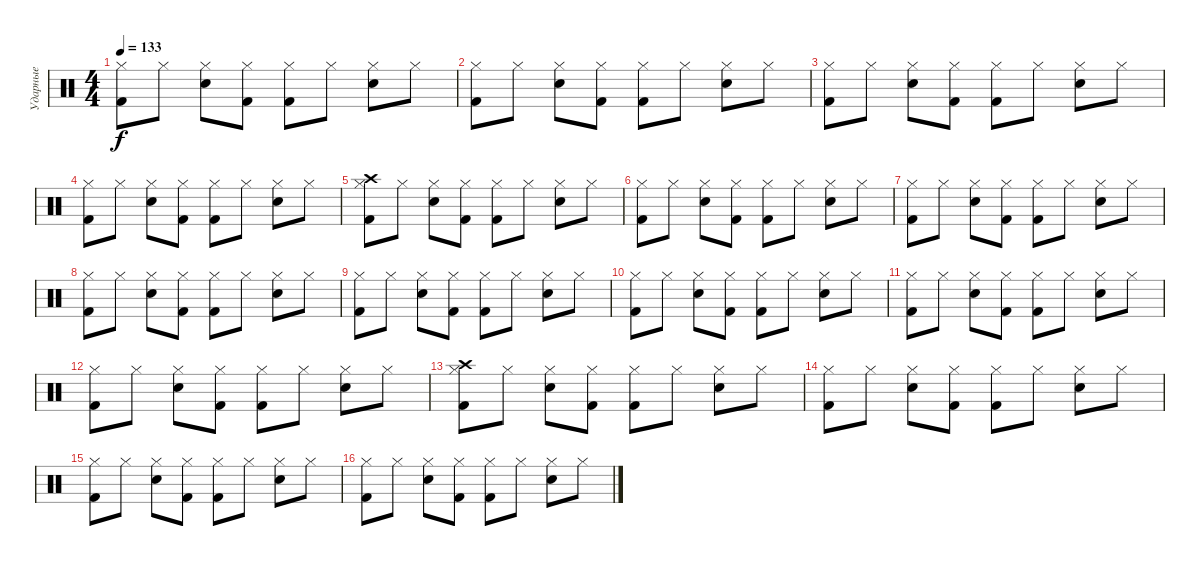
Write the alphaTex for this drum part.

\track ("Ударные" "Ударные") {instrument percussion}
\staff {score}
\articulation defaults
\ts (4 4)
\tempo 133
\clef neutral
\ks c
("Kick (hit) 2" "Hi-Hat (closed)").8{dy f} "Hi-Hat (closed)".8 ("Electric Snare (hit)" "Hi-Hat (closed)").8 ("Kick (hit) 2" "Hi-Hat (closed)").8 ("Kick (hit) 2" "Hi-Hat (closed)").8 "Hi-Hat (closed)".8 ("Electric Snare (hit)" "Hi-Hat (closed)").8 "Hi-Hat (closed)".8 |
("Kick (hit) 2" "Hi-Hat (closed)").8 "Hi-Hat (closed)".8 ("Electric Snare (hit)" "Hi-Hat (closed)").8 ("Kick (hit) 2" "Hi-Hat (closed)").8 ("Kick (hit) 2" "Hi-Hat (closed)").8 "Hi-Hat (closed)".8 ("Electric Snare (hit)" "Hi-Hat (closed)").8 "Hi-Hat (closed)".8 |
("Kick (hit) 2" "Hi-Hat (closed)").8 "Hi-Hat (closed)".8 ("Electric Snare (hit)" "Hi-Hat (closed)").8 ("Kick (hit) 2" "Hi-Hat (closed)").8 ("Kick (hit) 2" "Hi-Hat (closed)").8 "Hi-Hat (closed)".8 ("Electric Snare (hit)" "Hi-Hat (closed)").8 "Hi-Hat (closed)".8 |
("Kick (hit) 2" "Hi-Hat (closed)").8 "Hi-Hat (closed)".8 ("Electric Snare (hit)" "Hi-Hat (closed)").8 ("Kick (hit) 2" "Hi-Hat (closed)").8 ("Kick (hit) 2" "Hi-Hat (closed)").8 "Hi-Hat (closed)".8 ("Electric Snare (hit)" "Hi-Hat (closed)").8 "Hi-Hat (closed)".8 |
("Kick (hit) 2" "Crash high (hit)" "Hi-Hat (closed)").8 "Hi-Hat (closed)".8 ("Electric Snare (hit)" "Hi-Hat (closed)").8 ("Kick (hit) 2" "Hi-Hat (closed)").8 ("Kick (hit) 2" "Hi-Hat (closed)").8 "Hi-Hat (closed)".8 ("Electric Snare (hit)" "Hi-Hat (closed)").8 "Hi-Hat (closed)".8 |
("Kick (hit) 2" "Hi-Hat (closed)").8 "Hi-Hat (closed)".8 ("Electric Snare (hit)" "Hi-Hat (closed)").8 ("Kick (hit) 2" "Hi-Hat (closed)").8 ("Kick (hit) 2" "Hi-Hat (closed)").8 "Hi-Hat (closed)".8 ("Electric Snare (hit)" "Hi-Hat (closed)").8 "Hi-Hat (closed)".8 |
("Kick (hit) 2" "Hi-Hat (closed)").8 "Hi-Hat (closed)".8 ("Electric Snare (hit)" "Hi-Hat (closed)").8 ("Kick (hit) 2" "Hi-Hat (closed)").8 ("Kick (hit) 2" "Hi-Hat (closed)").8 "Hi-Hat (closed)".8 ("Electric Snare (hit)" "Hi-Hat (closed)").8 "Hi-Hat (closed)".8 |
("Kick (hit) 2" "Hi-Hat (closed)").8 "Hi-Hat (closed)".8 ("Electric Snare (hit)" "Hi-Hat (closed)").8 ("Kick (hit) 2" "Hi-Hat (closed)").8 ("Kick (hit) 2" "Hi-Hat (closed)").8 "Hi-Hat (closed)".8 ("Electric Snare (hit)" "Hi-Hat (closed)").8 "Hi-Hat (closed)".8 |
("Kick (hit) 2" "Hi-Hat (closed)").8 "Hi-Hat (closed)".8 ("Electric Snare (hit)" "Hi-Hat (closed)").8 ("Kick (hit) 2" "Hi-Hat (closed)").8 ("Kick (hit) 2" "Hi-Hat (closed)").8 "Hi-Hat (closed)".8 ("Electric Snare (hit)" "Hi-Hat (closed)").8 "Hi-Hat (closed)".8 |
("Kick (hit) 2" "Hi-Hat (closed)").8 "Hi-Hat (closed)".8 ("Electric Snare (hit)" "Hi-Hat (closed)").8 ("Kick (hit) 2" "Hi-Hat (closed)").8 ("Kick (hit) 2" "Hi-Hat (closed)").8 "Hi-Hat (closed)".8 ("Electric Snare (hit)" "Hi-Hat (closed)").8 "Hi-Hat (closed)".8 |
("Kick (hit) 2" "Hi-Hat (closed)").8 "Hi-Hat (closed)".8 ("Electric Snare (hit)" "Hi-Hat (closed)").8 ("Kick (hit) 2" "Hi-Hat (closed)").8 ("Kick (hit) 2" "Hi-Hat (closed)").8 "Hi-Hat (closed)".8 ("Electric Snare (hit)" "Hi-Hat (closed)").8 "Hi-Hat (closed)".8 |
("Kick (hit) 2" "Hi-Hat (closed)").8 "Hi-Hat (closed)".8 ("Electric Snare (hit)" "Hi-Hat (closed)").8 ("Kick (hit) 2" "Hi-Hat (closed)").8 ("Kick (hit) 2" "Hi-Hat (closed)").8 "Hi-Hat (closed)".8 ("Electric Snare (hit)" "Hi-Hat (closed)").8 "Hi-Hat (closed)".8 |
("Kick (hit) 2" "Crash high (hit)" "Hi-Hat (closed)").8 "Hi-Hat (closed)".8 ("Electric Snare (hit)" "Hi-Hat (closed)").8 ("Kick (hit) 2" "Hi-Hat (closed)").8 ("Kick (hit) 2" "Hi-Hat (closed)").8 "Hi-Hat (closed)".8 ("Electric Snare (hit)" "Hi-Hat (closed)").8 "Hi-Hat (closed)".8 |
("Kick (hit) 2" "Hi-Hat (closed)").8 "Hi-Hat (closed)".8 ("Electric Snare (hit)" "Hi-Hat (closed)").8 ("Kick (hit) 2" "Hi-Hat (closed)").8 ("Kick (hit) 2" "Hi-Hat (closed)").8 "Hi-Hat (closed)".8 ("Electric Snare (hit)" "Hi-Hat (closed)").8 "Hi-Hat (closed)".8 |
("Kick (hit) 2" "Hi-Hat (closed)").8 "Hi-Hat (closed)".8 ("Electric Snare (hit)" "Hi-Hat (closed)").8 ("Kick (hit) 2" "Hi-Hat (closed)").8 ("Kick (hit) 2" "Hi-Hat (closed)").8 "Hi-Hat (closed)".8 ("Electric Snare (hit)" "Hi-Hat (closed)").8 "Hi-Hat (closed)".8 |
("Kick (hit) 2" "Hi-Hat (closed)").8 "Hi-Hat (closed)".8 ("Electric Snare (hit)" "Hi-Hat (closed)").8 ("Kick (hit) 2" "Hi-Hat (closed)").8 ("Kick (hit) 2" "Hi-Hat (closed)").8 "Hi-Hat (closed)".8 ("Electric Snare (hit)" "Hi-Hat (closed)").8 "Hi-Hat (closed)".8
